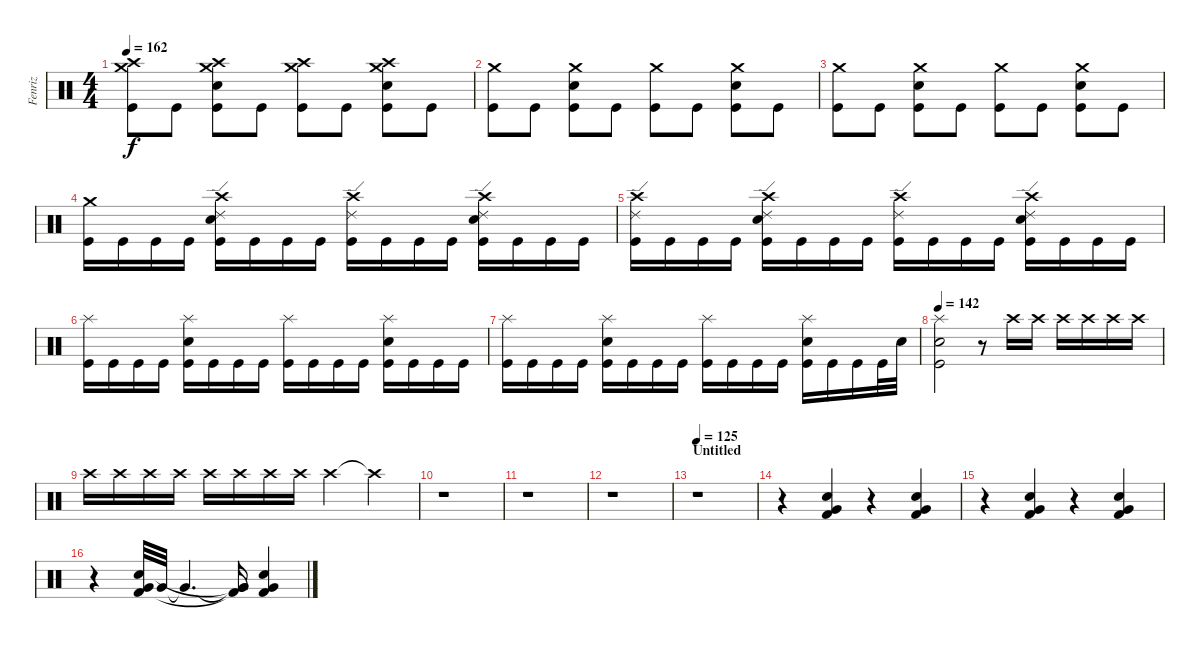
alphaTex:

\track ("Fenriz" "Fenriz") {instrument percussion}
\staff {score}
\articulation defaults
\ts (4 4)
\tempo 162
\clef neutral
\ks c
("Crash medium (hit)" "Crash high (hit)" "Kick (hit)").8{dy f} "Kick (hit)".8 ("Crash medium (hit)" "Crash high (hit)" "Electric Snare (hit)" "Kick (hit)").8 "Kick (hit)".8 ("Crash medium (hit)" "Crash high (hit)" "Kick (hit)").8 "Kick (hit)".8 ("Crash medium (hit)" "Crash high (hit)" "Electric Snare (hit)" "Kick (hit)").8 "Kick (hit)".8 |
("Crash medium (hit)" "Kick (hit)").8 "Kick (hit)".8 ("Crash medium (hit)" "Electric Snare (hit)" "Kick (hit)").8 "Kick (hit)".8 ("Crash medium (hit)" "Kick (hit)").8 "Kick (hit)".8 ("Crash medium (hit)" "Electric Snare (hit)" "Kick (hit)").8 "Kick (hit)".8 |
("Crash medium (hit)" "Kick (hit)").8 "Kick (hit)".8 ("Crash medium (hit)" "Electric Snare (hit)" "Kick (hit)").8 "Kick (hit)".8 ("Crash medium (hit)" "Kick (hit)").8 "Kick (hit)".8 ("Crash medium (hit)" "Electric Snare (hit)" "Kick (hit)").8 "Kick (hit)".8 |
("Crash medium (hit)" "Kick (hit)").16 "Kick (hit)".16 "Kick (hit)".16 "Kick (hit)".16 ("Ride (edge) 2" "Crash high (hit)" "Electric Snare (hit)" "Kick (hit)").16 "Kick (hit)".16 "Kick (hit)".16 "Kick (hit)".16 ("Ride (edge) 2" "Crash high (hit)" "Kick (hit)").16 "Kick (hit)".16 "Kick (hit)".16 "Kick (hit)".16 ("Ride (edge) 2" "Crash high (hit)" "Electric Snare (hit)" "Kick (hit)").16 "Kick (hit)".16 "Kick (hit)".16 "Kick (hit)".16 |
("Ride (edge) 2" "Crash high (hit)" "Kick (hit)").16 "Kick (hit)".16 "Kick (hit)".16 "Kick (hit)".16 ("Ride (edge) 2" "Crash high (hit)" "Electric Snare (hit)" "Kick (hit)").16 "Kick (hit)".16 "Kick (hit)".16 "Kick (hit)".16 ("Ride (edge) 2" "Crash high (hit)" "Kick (hit)").16 "Kick (hit)".16 "Kick (hit)".16 "Kick (hit)".16 ("Ride (edge) 2" "Crash high (hit)" "Electric Snare (hit)" "Kick (hit)").16 "Kick (hit)".16 "Kick (hit)".16 "Kick (hit)".16 |
("Splash (hit)" "Kick (hit)").16 "Kick (hit)".16 "Kick (hit)".16 "Kick (hit)".16 ("Splash (hit)" "Electric Snare (hit)" "Kick (hit)").16 "Kick (hit)".16 "Kick (hit)".16 "Kick (hit)".16 ("Splash (hit)" "Kick (hit)").16 "Kick (hit)".16 "Kick (hit)".16 "Kick (hit)".16 ("Splash (hit)" "Electric Snare (hit)" "Kick (hit)").16 "Kick (hit)".16 "Kick (hit)".16 "Kick (hit)".16 |
("Splash (hit)" "Kick (hit)").16 "Kick (hit)".16 "Kick (hit)".16 "Kick (hit)".16 ("Splash (hit)" "Electric Snare (hit)" "Kick (hit)").16 "Kick (hit)".16 "Kick (hit)".16 "Kick (hit)".16 ("Splash (hit)" "Kick (hit)").16 "Kick (hit)".16 "Kick (hit)".16 "Kick (hit)".16 ("Splash (hit)" "Electric Snare (hit)" "Kick (hit)").16 "Kick (hit)".16 "Kick (hit)".16 "Kick (hit)".32 "Electric Snare (hit)".32 |
\tempo 142
("Splash (hit)" "Electric Snare (hit)" "Kick (hit)").2 r.8 "Crash high (hit)".16 "Crash high (hit)".16 "Crash high (hit)".16 "Crash high (hit)".16 "Crash high (hit)".16 "Crash high (hit)".16 |
"Crash high (hit)".16 "Crash high (hit)".16 "Crash high (hit)".16 "Crash high (hit)".16 "Crash high (hit)".16 "Crash high (hit)".16 "Crash high (hit)".16 "Crash high (hit)".16 "Crash high (hit)".4 "Crash high (hit)"{t}.4 |
r.1 |
r.1 |
r.1 |
\section ("" "Untitled")
\tempo 125
r.1 |
r.4 ("Very Low Tom (hit)" "Snare (hit) 2" "Kick (hit) 2").4 r.4 ("Very Low Tom (hit)" "Snare (hit) 2" "Kick (hit) 2").4 |
r.4 ("Very Low Tom (hit)" "Snare (hit) 2" "Kick (hit) 2").4 r.4 ("Very Low Tom (hit)" "Snare (hit) 2" "Kick (hit) 2").4 |
r.4 ("Very Low Tom (hit)" "Snare (hit) 2" "Kick (hit) 2").32 "Very Low Tom (hit)".32 "Very Low Tom (hit)"{t}.4{d} ("Very Low Tom (hit)"{t} "Very Low Tom (hit)"{t} "Kick (hit) 2"{t}).16 ("Very Low Tom (hit)" "Snare (hit) 2" "Kick (hit) 2").4
